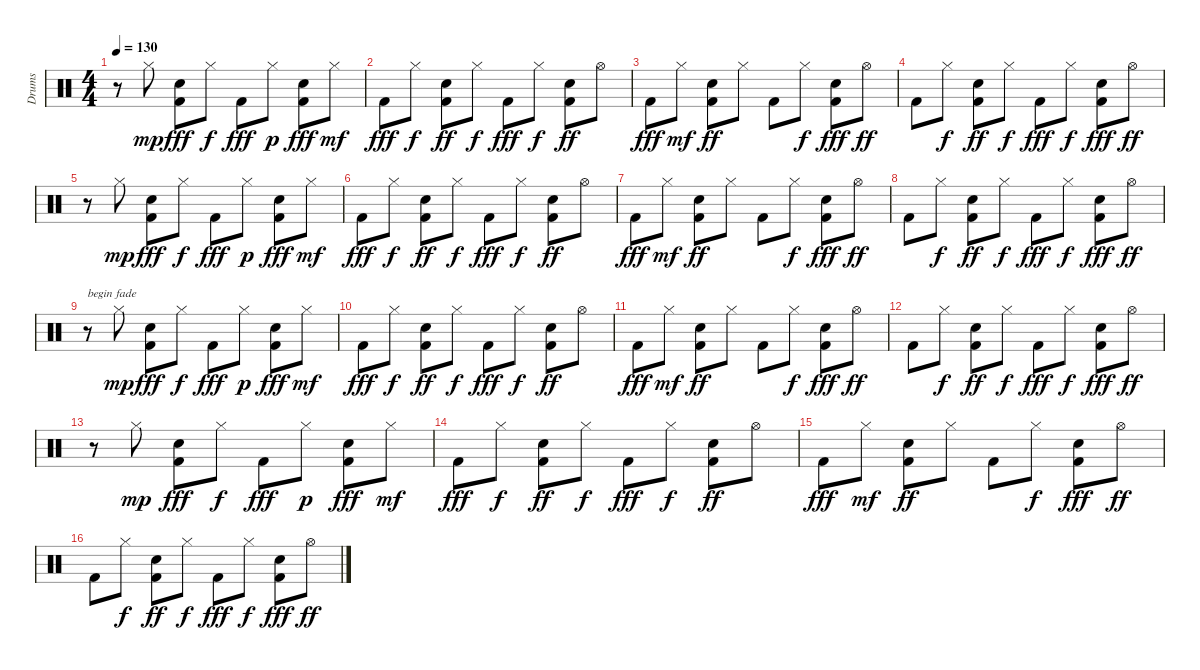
\track ("Drums" "Drums") {instrument percussion}
\staff {score}
\articulation defaults
\ts (4 4)
\tempo 130
\clef neutral
\ks c
r.8{dy ff} "Hi-Hat (closed)".8{dy mp} ("Kick (hit) 2" "Snare (hit) 2").8{dy fff} "Hi-Hat (closed)".8{dy f} "Kick (hit) 2".8{dy fff} "Hi-Hat (closed)".8{dy p} ("Kick (hit) 2" "Snare (hit) 2").8{dy fff} "Hi-Hat (closed)".8{dy mf} |
"Kick (hit) 2".8{dy fff} "Hi-Hat (closed)".8{dy f} ("Kick (hit) 2" "Snare (hit) 2").8{dy ff} "Hi-Hat (closed)".8{dy f} "Kick (hit) 2".8{dy fff} "Hi-Hat (closed)".8{dy f} ("Kick (hit) 2" "Snare (hit) 2").8{dy ff} "Hi-Hat (open)".8 |
"Kick (hit) 2".8{dy fff} "Hi-Hat (closed)".8{dy mf} ("Kick (hit) 2" "Snare (hit) 2").8{dy ff} "Hi-Hat (closed)".8 "Kick (hit) 2".8 "Hi-Hat (closed)".8{dy f} ("Kick (hit) 2" "Snare (hit) 2").8{dy fff} "Hi-Hat (open)".8{dy ff} |
"Kick (hit) 2".8 "Hi-Hat (closed)".8{dy f} ("Kick (hit) 2" "Snare (hit) 2").8{dy ff} "Hi-Hat (closed)".8{dy f} "Kick (hit) 2".8{dy fff} "Hi-Hat (closed)".8{dy f} ("Kick (hit) 2" "Snare (hit) 2").8{dy fff} "Hi-Hat (open)".8{dy ff} |
r.8 "Hi-Hat (closed)".8{dy mp} ("Kick (hit) 2" "Snare (hit) 2").8{dy fff} "Hi-Hat (closed)".8{dy f} "Kick (hit) 2".8{dy fff} "Hi-Hat (closed)".8{dy p} ("Kick (hit) 2" "Snare (hit) 2").8{dy fff} "Hi-Hat (closed)".8{dy mf} |
"Kick (hit) 2".8{dy fff} "Hi-Hat (closed)".8{dy f} ("Kick (hit) 2" "Snare (hit) 2").8{dy ff} "Hi-Hat (closed)".8{dy f} "Kick (hit) 2".8{dy fff} "Hi-Hat (closed)".8{dy f} ("Kick (hit) 2" "Snare (hit) 2").8{dy ff} "Hi-Hat (open)".8 |
"Kick (hit) 2".8{dy fff} "Hi-Hat (closed)".8{dy mf} ("Kick (hit) 2" "Snare (hit) 2").8{dy ff} "Hi-Hat (closed)".8 "Kick (hit) 2".8 "Hi-Hat (closed)".8{dy f} ("Kick (hit) 2" "Snare (hit) 2").8{dy fff} "Hi-Hat (open)".8{dy ff} |
"Kick (hit) 2".8 "Hi-Hat (closed)".8{dy f} ("Kick (hit) 2" "Snare (hit) 2").8{dy ff} "Hi-Hat (closed)".8{dy f} "Kick (hit) 2".8{dy fff} "Hi-Hat (closed)".8{dy f} ("Kick (hit) 2" "Snare (hit) 2").8{dy fff} "Hi-Hat (open)".8{dy ff} |
r.8{txt "begin fade" volume 14} "Hi-Hat (closed)".8{dy mp} ("Kick (hit) 2" "Snare (hit) 2").8{dy fff} "Hi-Hat (closed)".8{dy f} "Kick (hit) 2".8{dy fff} "Hi-Hat (closed)".8{dy p} ("Kick (hit) 2" "Snare (hit) 2").8{dy fff} "Hi-Hat (closed)".8{dy mf} |
"Kick (hit) 2".8{dy fff volume 12} "Hi-Hat (closed)".8{dy f} ("Kick (hit) 2" "Snare (hit) 2").8{dy ff} "Hi-Hat (closed)".8{dy f} "Kick (hit) 2".8{dy fff} "Hi-Hat (closed)".8{dy f} ("Kick (hit) 2" "Snare (hit) 2").8{dy ff} "Hi-Hat (open)".8 |
"Kick (hit) 2".8{dy fff volume 10} "Hi-Hat (closed)".8{dy mf} ("Kick (hit) 2" "Snare (hit) 2").8{dy ff} "Hi-Hat (closed)".8 "Kick (hit) 2".8 "Hi-Hat (closed)".8{dy f} ("Kick (hit) 2" "Snare (hit) 2").8{dy fff} "Hi-Hat (open)".8{dy ff} |
"Kick (hit) 2".8{volume 8} "Hi-Hat (closed)".8{dy f} ("Kick (hit) 2" "Snare (hit) 2").8{dy ff} "Hi-Hat (closed)".8{dy f} "Kick (hit) 2".8{dy fff} "Hi-Hat (closed)".8{dy f} ("Kick (hit) 2" "Snare (hit) 2").8{dy fff} "Hi-Hat (open)".8{dy ff} |
r.8{volume 6} "Hi-Hat (closed)".8{dy mp} ("Kick (hit) 2" "Snare (hit) 2").8{dy fff} "Hi-Hat (closed)".8{dy f} "Kick (hit) 2".8{dy fff} "Hi-Hat (closed)".8{dy p} ("Kick (hit) 2" "Snare (hit) 2").8{dy fff} "Hi-Hat (closed)".8{dy mf} |
"Kick (hit) 2".8{dy fff} "Hi-Hat (closed)".8{dy f volume 4} ("Kick (hit) 2" "Snare (hit) 2").8{dy ff} "Hi-Hat (closed)".8{dy f} "Kick (hit) 2".8{dy fff} "Hi-Hat (closed)".8{dy f} ("Kick (hit) 2" "Snare (hit) 2").8{dy ff} "Hi-Hat (open)".8 |
"Kick (hit) 2".8{dy fff volume 2} "Hi-Hat (closed)".8{dy mf} ("Kick (hit) 2" "Snare (hit) 2").8{dy ff} "Hi-Hat (closed)".8 "Kick (hit) 2".8 "Hi-Hat (closed)".8{dy f} ("Kick (hit) 2" "Snare (hit) 2").8{dy fff} "Hi-Hat (open)".8{dy ff} |
"Kick (hit) 2".8{volume 0} "Hi-Hat (closed)".8{dy f} ("Kick (hit) 2" "Snare (hit) 2").8{dy ff} "Hi-Hat (closed)".8{dy f} "Kick (hit) 2".8{dy fff} "Hi-Hat (closed)".8{dy f} ("Kick (hit) 2" "Snare (hit) 2").8{dy fff} "Hi-Hat (open)".8{dy ff}
